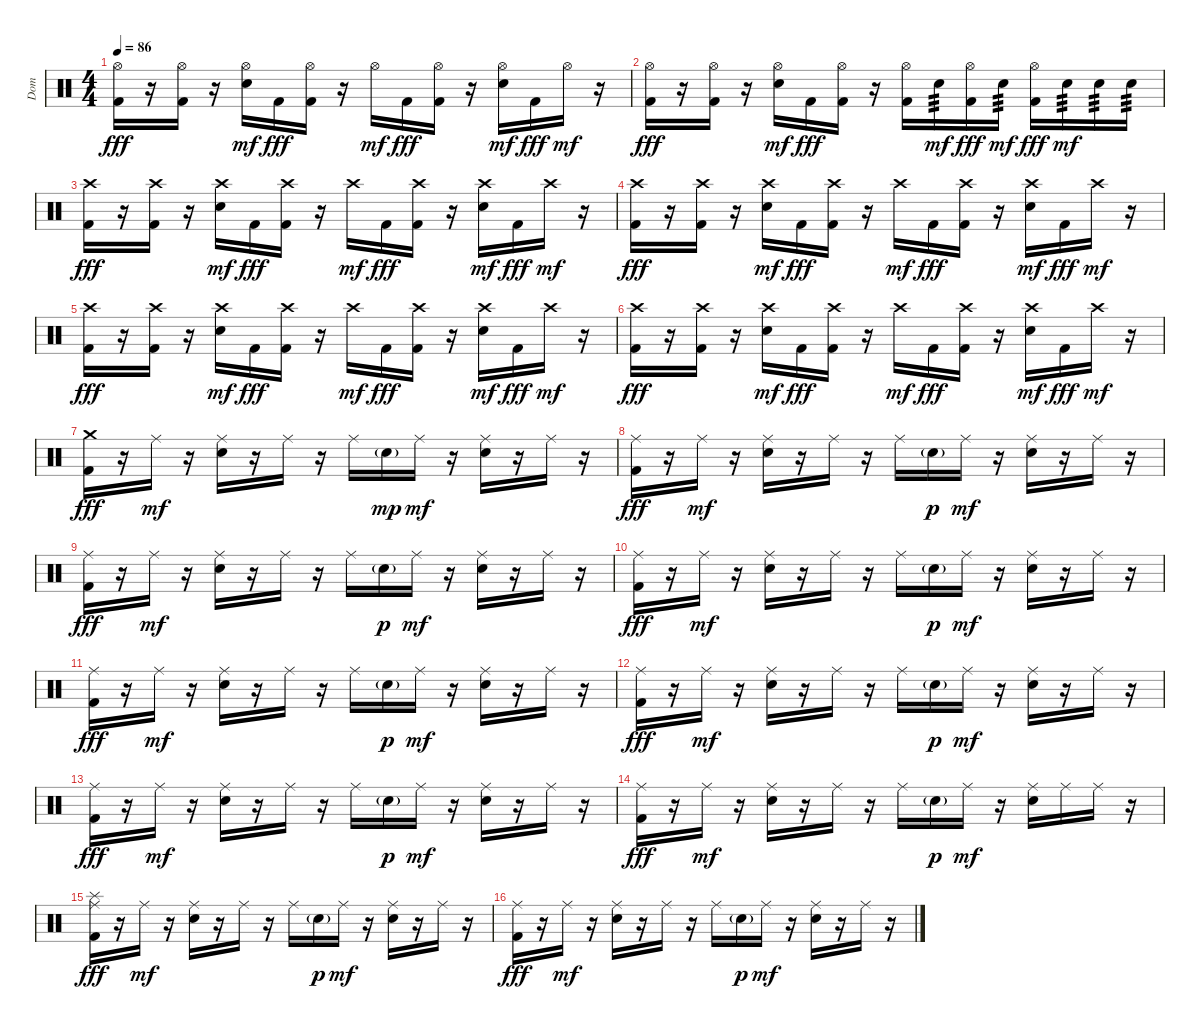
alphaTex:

\track ("Dom" "Dom") {instrument percussion}
\staff {score}
\articulation defaults
\ts (4 4)
\tempo 86
\clef neutral
\ks c
("Hi-Hat (open)" "Kick (hit) 2").16{dy fff} r.16 ("Hi-Hat (open)" "Kick (hit) 2").16 r.16 ("Hi-Hat (open)" "Electric Snare (hit)").16{dy mf} "Kick (hit) 2".16{dy fff} ("Hi-Hat (open)" "Kick (hit) 2").16 r.16 "Hi-Hat (open)".16{dy mf} "Kick (hit) 2".16{dy fff} ("Hi-Hat (open)" "Kick (hit) 2").16 r.16 ("Hi-Hat (open)" "Electric Snare (hit)").16{dy mf} "Kick (hit) 2".16{dy fff} "Hi-Hat (open)".16{dy mf} r.16 |
("Hi-Hat (open)" "Kick (hit) 2").16{dy fff} r.16 ("Hi-Hat (open)" "Kick (hit) 2").16 r.16 ("Hi-Hat (open)" "Electric Snare (hit)").16{dy mf} "Kick (hit) 2".16{dy fff} ("Hi-Hat (open)" "Kick (hit) 2").16 r.16 ("Hi-Hat (open)" "Kick (hit) 2").16 "Electric Snare (hit)".16{tp 3 dy mf} ("Hi-Hat (open)" "Kick (hit) 2").16{dy fff} "Electric Snare (hit)".16{tp 3 dy mf} ("Hi-Hat (open)" "Kick (hit) 2").16{dy fff} "Electric Snare (hit)".16{tp 3 dy mf} "Electric Snare (hit)".16{tp 3} "Electric Snare (hit)".16{tp 3} |
("Crash high (hit)" "Kick (hit) 2").16{dy fff} r.16 ("Crash high (hit)" "Kick (hit) 2").16 r.16 ("Crash high (hit)" "Electric Snare (hit)").16{dy mf} "Kick (hit) 2".16{dy fff} ("Crash high (hit)" "Kick (hit) 2").16 r.16 "Crash high (hit)".16{dy mf} "Kick (hit) 2".16{dy fff} ("Crash high (hit)" "Kick (hit) 2").16 r.16 ("Crash high (hit)" "Electric Snare (hit)").16{dy mf} "Kick (hit) 2".16{dy fff} "Crash high (hit)".16{dy mf} r.16 |
("Crash high (hit)" "Kick (hit) 2").16{dy fff} r.16 ("Crash high (hit)" "Kick (hit) 2").16 r.16 ("Crash high (hit)" "Electric Snare (hit)").16{dy mf} "Kick (hit) 2".16{dy fff} ("Crash high (hit)" "Kick (hit) 2").16 r.16 "Crash high (hit)".16{dy mf} "Kick (hit) 2".16{dy fff} ("Crash high (hit)" "Kick (hit) 2").16 r.16 ("Crash high (hit)" "Electric Snare (hit)").16{dy mf} "Kick (hit) 2".16{dy fff} "Crash high (hit)".16{dy mf} r.16 |
("Crash high (hit)" "Kick (hit) 2").16{dy fff} r.16 ("Crash high (hit)" "Kick (hit) 2").16 r.16 ("Crash high (hit)" "Electric Snare (hit)").16{dy mf} "Kick (hit) 2".16{dy fff} ("Crash high (hit)" "Kick (hit) 2").16 r.16 "Crash high (hit)".16{dy mf} "Kick (hit) 2".16{dy fff} ("Crash high (hit)" "Kick (hit) 2").16 r.16 ("Crash high (hit)" "Electric Snare (hit)").16{dy mf} "Kick (hit) 2".16{dy fff} "Crash high (hit)".16{dy mf} r.16 |
("Crash high (hit)" "Kick (hit) 2").16{dy fff} r.16 ("Crash high (hit)" "Kick (hit) 2").16 r.16 ("Crash high (hit)" "Electric Snare (hit)").16{dy mf} "Kick (hit) 2".16{dy fff} ("Crash high (hit)" "Kick (hit) 2").16 r.16 "Crash high (hit)".16{dy mf} "Kick (hit) 2".16{dy fff} ("Crash high (hit)" "Kick (hit) 2").16 r.16 ("Crash high (hit)" "Electric Snare (hit)").16{dy mf} "Kick (hit) 2".16{dy fff} "Crash high (hit)".16{dy mf} r.16 |
("Crash medium (hit)" "Kick (hit) 2").16{dy fff} r.16 "Ride (middle)".16{dy mf} r.16 ("Ride (middle)" "Electric Snare (hit)").16 r.16 "Ride (middle)".16 r.16 "Ride (middle)".16 "Electric Snare (hit)"{g}.16{dy mp} "Ride (middle)".16{dy mf} r.16 ("Ride (middle)" "Electric Snare (hit)").16 r.16 "Ride (middle)".16 r.16 |
("Ride (middle)" "Kick (hit) 2").16{dy fff} r.16 "Ride (middle)".16{dy mf} r.16 ("Ride (middle)" "Electric Snare (hit)").16 r.16 "Ride (middle)".16 r.16 "Ride (middle)".16 "Electric Snare (hit)"{g}.16{dy p} "Ride (middle)".16{dy mf} r.16 ("Ride (middle)" "Electric Snare (hit)").16 r.16 "Ride (middle)".16 r.16 |
("Ride (middle)" "Kick (hit) 2").16{dy fff} r.16 "Ride (middle)".16{dy mf} r.16 ("Ride (middle)" "Electric Snare (hit)").16 r.16 "Ride (middle)".16 r.16 "Ride (middle)".16 "Electric Snare (hit)"{g}.16{dy p} "Ride (middle)".16{dy mf} r.16 ("Ride (middle)" "Electric Snare (hit)").16 r.16 "Ride (middle)".16 r.16 |
("Ride (middle)" "Kick (hit) 2").16{dy fff} r.16 "Ride (middle)".16{dy mf} r.16 ("Ride (middle)" "Electric Snare (hit)").16 r.16 "Ride (middle)".16 r.16 "Ride (middle)".16 "Electric Snare (hit)"{g}.16{dy p} "Ride (middle)".16{dy mf} r.16 ("Ride (middle)" "Electric Snare (hit)").16 r.16 "Ride (middle)".16 r.16 |
("Ride (middle)" "Kick (hit) 2").16{dy fff} r.16 "Ride (middle)".16{dy mf} r.16 ("Ride (middle)" "Electric Snare (hit)").16 r.16 "Ride (middle)".16 r.16 "Ride (middle)".16 "Electric Snare (hit)"{g}.16{dy p} "Ride (middle)".16{dy mf} r.16 ("Ride (middle)" "Electric Snare (hit)").16 r.16 "Ride (middle)".16 r.16 |
("Ride (middle)" "Kick (hit) 2").16{dy fff} r.16 "Ride (middle)".16{dy mf} r.16 ("Ride (middle)" "Electric Snare (hit)").16 r.16 "Ride (middle)".16 r.16 "Ride (middle)".16 "Electric Snare (hit)"{g}.16{dy p} "Ride (middle)".16{dy mf} r.16 ("Ride (middle)" "Electric Snare (hit)").16 r.16 "Ride (middle)".16 r.16 |
("Ride (middle)" "Kick (hit) 2").16{dy fff} r.16 "Ride (middle)".16{dy mf} r.16 ("Ride (middle)" "Electric Snare (hit)").16 r.16 "Ride (middle)".16 r.16 "Ride (middle)".16 "Electric Snare (hit)"{g}.16{dy p} "Ride (middle)".16{dy mf} r.16 ("Ride (middle)" "Electric Snare (hit)").16 r.16 "Ride (middle)".16 r.16 |
("Ride (middle)" "Kick (hit) 2").16{dy fff} r.16 "Ride (middle)".16{dy mf} r.16 ("Ride (middle)" "Electric Snare (hit)").16 r.16 "Ride (middle)".16 r.16 "Ride (middle)".16 "Electric Snare (hit)"{g}.16{dy p} "Ride (middle)".16{dy mf} r.16 ("Ride (middle)" "Electric Snare (hit)").16 "Ride (middle)".16 "Ride (middle)".16 r.16 |
("Ride (middle)" "Splash (hit)" "Kick (hit) 2").16{dy fff} r.16 "Ride (middle)".16{dy mf} r.16 ("Ride (middle)" "Electric Snare (hit)").16 r.16 "Ride (middle)".16 r.16 "Ride (middle)".16 "Electric Snare (hit)"{g}.16{dy p} "Ride (middle)".16{dy mf} r.16 ("Ride (middle)" "Electric Snare (hit)").16 r.16 "Ride (middle)".16 r.16 |
("Ride (middle)" "Kick (hit) 2").16{dy fff} r.16 "Ride (middle)".16{dy mf} r.16 ("Ride (middle)" "Electric Snare (hit)").16 r.16 "Ride (middle)".16 r.16 "Ride (middle)".16 "Electric Snare (hit)"{g}.16{dy p} "Ride (middle)".16{dy mf} r.16 ("Ride (middle)" "Electric Snare (hit)").16 r.16 "Ride (middle)".16 r.16
